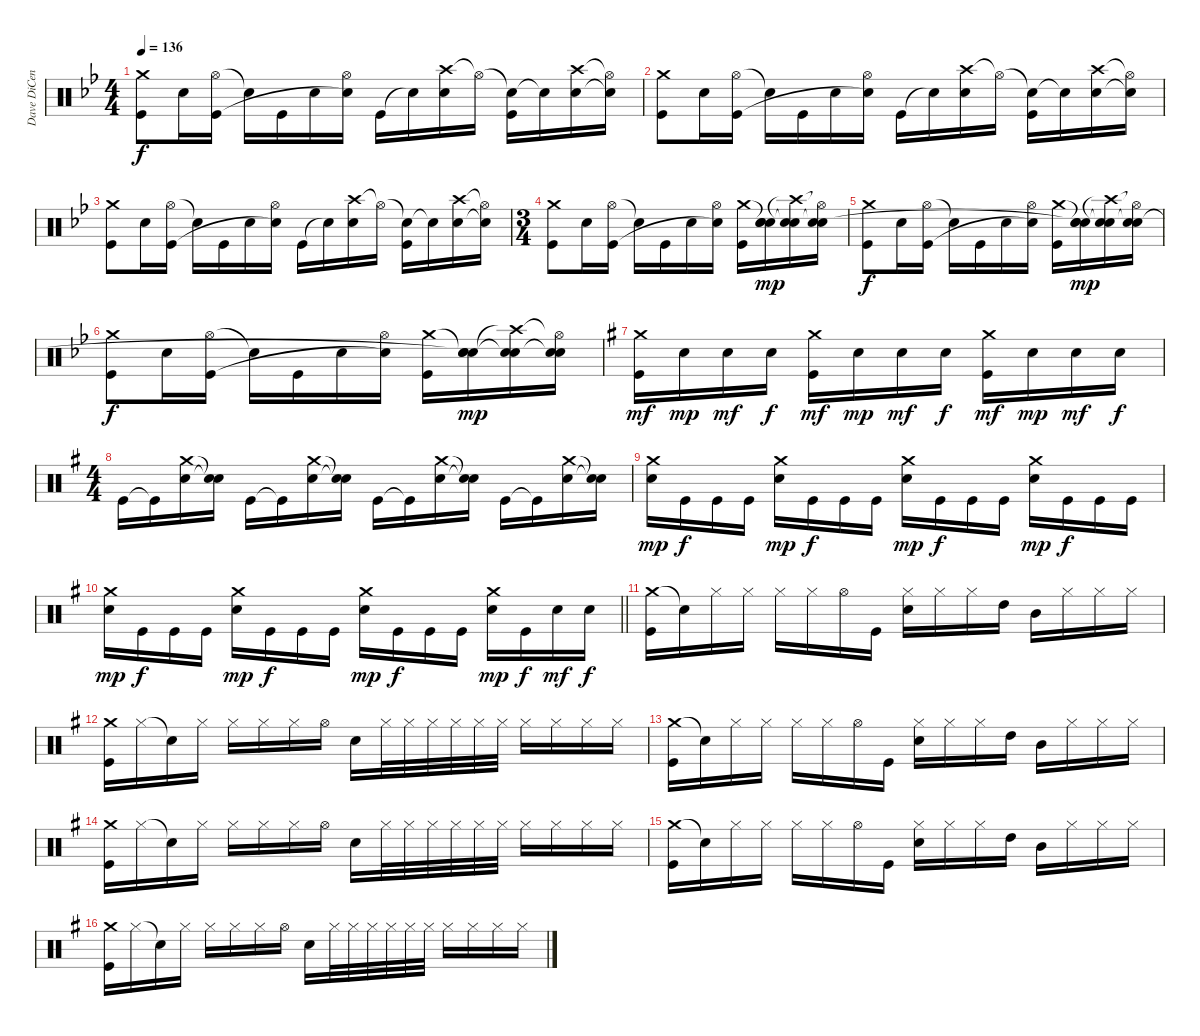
\track ("Dave DiCenso" "Dave DiCen") {instrument percussion}
\staff {score}
\articulation defaults
\ts (4 4)
\tempo 136
\clef neutral
\ks bb
("Crash medium (hit)" "Kick (hit)").8{dy f} "Electric Snare (hit)".16 ("Hi-Hat (open)" "Kick (hit)").16 "Snare (hit)"{t}.16 "Kick (hit)".16 "Electric Snare (hit)".16 ("Hi-Hat (open)" "Snare (hit)"{t}).16 "Kick (hit)".16 "Snare (hit)"{t}.16 ("Crash high (hit)" "Electric Snare (hit)").16 "Hi-Hat (open)"{t}.16 ("Snare (hit)"{t} "Kick (hit)").16 "Snare (hit)"{t}.16 ("Crash high (hit)" "Electric Snare (hit)").16 ("Hi-Hat (open)"{t} "Snare (hit)"{t}).16 |
("Crash medium (hit)" "Kick (hit)").8 "Electric Snare (hit)".16 ("Hi-Hat (open)" "Kick (hit)").16 "Snare (hit)"{t}.16 "Kick (hit)".16 "Electric Snare (hit)".16 ("Hi-Hat (open)" "Snare (hit)"{t}).16 "Kick (hit)".16 "Snare (hit)"{t}.16 ("Crash high (hit)" "Electric Snare (hit)").16 "Hi-Hat (open)"{t}.16 ("Snare (hit)"{t} "Kick (hit)").16 "Snare (hit)"{t}.16 ("Crash high (hit)" "Electric Snare (hit)").16 ("Hi-Hat (open)"{t} "Snare (hit)"{t}).16 |
("Crash medium (hit)" "Kick (hit)").8 "Electric Snare (hit)".16 ("Hi-Hat (open)" "Kick (hit)").16 "Snare (hit)"{t}.16 "Kick (hit)".16 "Electric Snare (hit)".16 ("Hi-Hat (open)" "Snare (hit)"{t}).16 "Kick (hit)".16 "Snare (hit)"{t}.16 ("Crash high (hit)" "Electric Snare (hit)").16 "Hi-Hat (open)"{t}.16 ("Snare (hit)"{t} "Kick (hit)").16 "Snare (hit)"{t}.16 ("Crash high (hit)" "Electric Snare (hit)").16 ("Hi-Hat (open)"{t} "Snare (hit)"{t}).16 |
\ts (3 4)
("Crash medium (hit)" "Kick (hit)").8 "Electric Snare (hit)".16 ("Hi-Hat (open)" "Kick (hit)").16 "Snare (hit)"{t}.16 "Kick (hit)".16 "Electric Snare (hit)".16 ("Hi-Hat (open)" "Snare (hit)"{t}).16 ("Crash medium (hit)" "Kick (hit)").16 ("Snare (hit)"{t} "Electric Snare (hit)" "Snare (hit)").16{dy mp} ("Crash high (hit)"{t} "Electric Snare (hit)" "Snare (hit)"{t}).16 ("Hi-Hat (open)"{t} "Electric Snare (hit)" "Snare (hit)"{t}).16 |
("Crash medium (hit)" "Kick (hit)").8{dy f} "Electric Snare (hit)".16 ("Hi-Hat (open)" "Kick (hit)").16 "Snare (hit)"{t}.16 "Kick (hit)".16 "Electric Snare (hit)".16 ("Hi-Hat (open)" "Snare (hit)"{t}).16 ("Crash medium (hit)" "Kick (hit)").16 ("Snare (hit)"{t} "Electric Snare (hit)" "Snare (hit)"{t}).16{dy mp} ("Crash high (hit)"{t} "Electric Snare (hit)" "Snare (hit)"{t}).16 ("Hi-Hat (open)"{t} "Electric Snare (hit)" "Snare (hit)"{t}).16 |
("Crash medium (hit)" "Kick (hit)").8{dy f} "Electric Snare (hit)".16 ("Hi-Hat (open)" "Kick (hit)").16 "Snare (hit)"{t}.16 "Kick (hit)".16 "Electric Snare (hit)".16 ("Hi-Hat (open)" "Snare (hit)"{t}).16 ("Crash medium (hit)" "Kick (hit)").16 ("Snare (hit)"{t} "Electric Snare (hit)" "Snare (hit)"{t}).16{dy mp} ("Crash high (hit)"{t} "Electric Snare (hit)" "Snare (hit)"{t}).16 ("Hi-Hat (open)"{t} "Electric Snare (hit)" "Snare (hit)"{t}).16 |
\ks g
("Crash medium (hit)" "Kick (hit)").16{dy mf} "Electric Snare (hit)".16{dy mp} "Electric Snare (hit)".16{dy mf} "Electric Snare (hit)".16{dy f} ("Crash medium (hit)" "Kick (hit)").16{dy mf} "Electric Snare (hit)".16{dy mp} "Electric Snare (hit)".16{dy mf} "Electric Snare (hit)".16{dy f} ("Crash medium (hit)" "Kick (hit)").16{dy mf} "Electric Snare (hit)".16{dy mp} "Electric Snare (hit)".16{dy mf} "Electric Snare (hit)".16{dy f} |
\ts (4 4)
"Kick (hit)".16 "Kick (hit)"{t}.16 ("Crash medium (hit)" "Electric Snare (hit)").16 ("Snare (hit)"{t} "Snare (hit)"{t}).16 "Kick (hit)".16 "Kick (hit)"{t}.16 ("Crash medium (hit)" "Electric Snare (hit)").16 ("Snare (hit)"{t} "Snare (hit)"{t}).16 "Kick (hit)".16 "Kick (hit)"{t}.16 ("Crash medium (hit)" "Electric Snare (hit)").16 ("Snare (hit)"{t} "Snare (hit)"{t}).16 "Kick (hit)".16 "Kick (hit)"{t}.16 ("Crash medium (hit)" "Electric Snare (hit)").16 ("Snare (hit)"{t} "Snare (hit)"{t}).16 |
("Crash medium (hit)" "Electric Snare (hit)").16{dy mp} "Kick (hit)".16{dy f} "Kick (hit)".16 "Kick (hit)".16 ("Crash medium (hit)" "Electric Snare (hit)").16{dy mp} "Kick (hit)".16{dy f} "Kick (hit)".16 "Kick (hit)".16 ("Crash medium (hit)" "Electric Snare (hit)").16{dy mp} "Kick (hit)".16{dy f} "Kick (hit)".16 "Kick (hit)".16 ("Crash medium (hit)" "Electric Snare (hit)").16{dy mp} "Kick (hit)".16{dy f} "Kick (hit)".16 "Kick (hit)".16 |
\barLineRight lightlight
("Crash medium (hit)" "Electric Snare (hit)").16{dy mp} "Kick (hit)".16{dy f} "Kick (hit)".16 "Kick (hit)".16 ("Crash medium (hit)" "Electric Snare (hit)").16{dy mp} "Kick (hit)".16{dy f} "Kick (hit)".16 "Kick (hit)".16 ("Crash medium (hit)" "Electric Snare (hit)").16{dy mp} "Kick (hit)".16{dy f} "Kick (hit)".16 "Kick (hit)".16 ("Crash medium (hit)" "Electric Snare (hit)").16{dy mp} "Kick (hit)".16{dy f} "Electric Snare (hit)".16{dy mf} "Electric Snare (hit)".16{dy f} |
("Crash medium (hit)" "Kick (hit)").16 "Snare (hit)"{t}.16 "Hi-Hat (closed)".16 "Hi-Hat (closed)".16 "Hi-Hat (closed)".16 "Hi-Hat (closed)".16 "Hi-Hat (open)".16 "Kick (hit)".16 ("Electric Snare (hit)" "Hi-Hat (closed)").16 "Hi-Hat (closed)".16 "Hi-Hat (closed)".16 "High Tom (hit)".16 "Mid Tom (hit)".16 "Hi-Hat (closed)".16 "Hi-Hat (closed)".16 "Hi-Hat (closed)".16 |
("Crash medium (hit)" "Kick (hit)").16 "Hi-Hat (closed)".16 "Snare (hit)"{t}.16 "Hi-Hat (closed)".16 "Hi-Hat (closed)".16 "Hi-Hat (closed)".16 "Hi-Hat (closed)".16 "Hi-Hat (open)".16 "Electric Snare (hit)".16 "Hi-Hat (closed)".32 "Hi-Hat (closed)".32 "Hi-Hat (closed)".32 "Hi-Hat (closed)".32 "Hi-Hat (closed)".32 "Hi-Hat (closed)".32 "Hi-Hat (closed)".16 "Hi-Hat (closed)".16 "Hi-Hat (closed)".16 "Hi-Hat (closed)".16 |
("Crash medium (hit)" "Kick (hit)").16 "Snare (hit)"{t}.16 "Hi-Hat (closed)".16 "Hi-Hat (closed)".16 "Hi-Hat (closed)".16 "Hi-Hat (closed)".16 "Hi-Hat (open)".16 "Kick (hit)".16 ("Electric Snare (hit)" "Hi-Hat (closed)").16 "Hi-Hat (closed)".16 "Hi-Hat (closed)".16 "High Tom (hit)".16 "Mid Tom (hit)".16 "Hi-Hat (closed)".16 "Hi-Hat (closed)".16 "Hi-Hat (closed)".16 |
("Crash medium (hit)" "Kick (hit)").16 "Hi-Hat (closed)".16 "Snare (hit)"{t}.16 "Hi-Hat (closed)".16 "Hi-Hat (closed)".16 "Hi-Hat (closed)".16 "Hi-Hat (closed)".16 "Hi-Hat (open)".16 "Electric Snare (hit)".16 "Hi-Hat (closed)".32 "Hi-Hat (closed)".32 "Hi-Hat (closed)".32 "Hi-Hat (closed)".32 "Hi-Hat (closed)".32 "Hi-Hat (closed)".32 "Hi-Hat (closed)".16 "Hi-Hat (closed)".16 "Hi-Hat (closed)".16 "Hi-Hat (closed)".16 |
("Crash medium (hit)" "Kick (hit)").16 "Snare (hit)"{t}.16 "Hi-Hat (closed)".16 "Hi-Hat (closed)".16 "Hi-Hat (closed)".16 "Hi-Hat (closed)".16 "Hi-Hat (open)".16 "Kick (hit)".16 ("Electric Snare (hit)" "Hi-Hat (closed)").16 "Hi-Hat (closed)".16 "Hi-Hat (closed)".16 "High Tom (hit)".16 "Mid Tom (hit)".16 "Hi-Hat (closed)".16 "Hi-Hat (closed)".16 "Hi-Hat (closed)".16 |
("Crash medium (hit)" "Kick (hit)").16 "Hi-Hat (closed)".16 "Snare (hit)"{t}.16 "Hi-Hat (closed)".16 "Hi-Hat (closed)".16 "Hi-Hat (closed)".16 "Hi-Hat (closed)".16 "Hi-Hat (open)".16 "Electric Snare (hit)".16 "Hi-Hat (closed)".32 "Hi-Hat (closed)".32 "Hi-Hat (closed)".32 "Hi-Hat (closed)".32 "Hi-Hat (closed)".32 "Hi-Hat (closed)".32 "Hi-Hat (closed)".16 "Hi-Hat (closed)".16 "Hi-Hat (closed)".16 "Hi-Hat (closed)".16
